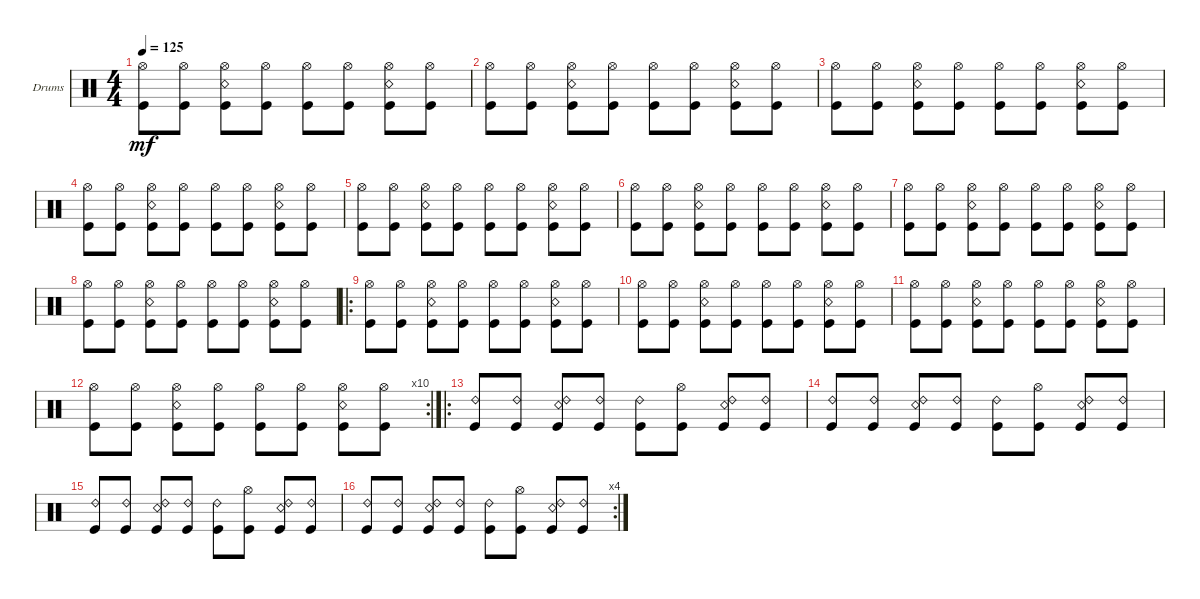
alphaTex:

\bracketExtendMode groupsimilarinstruments
\firstSystemTrackNameOrientation horizontal
\otherSystemsTrackNameOrientation horizontal
\track ("Drums" "Drums") {instrument percussion}
\staff {score}
\articulation defaults
\ts (4 4)
\tempo 125
\clef neutral
\ks c
("Kick (hit)" "Hi-Hat (open)").8{dy mf} ("Kick (hit)" "Hi-Hat (open)").8 ("Kick (hit)" "Hi-Hat (open)" "Snare (rim shot)").8 ("Kick (hit)" "Hi-Hat (open)").8 ("Kick (hit)" "Hi-Hat (open)").8 ("Kick (hit)" "Hi-Hat (open)").8 ("Kick (hit)" "Hi-Hat (open)" "Snare (rim shot)").8 ("Kick (hit)" "Hi-Hat (open)").8 |
("Kick (hit)" "Hi-Hat (open)").8 ("Kick (hit)" "Hi-Hat (open)").8 ("Kick (hit)" "Hi-Hat (open)" "Snare (rim shot)").8 ("Kick (hit)" "Hi-Hat (open)").8 ("Kick (hit)" "Hi-Hat (open)").8 ("Kick (hit)" "Hi-Hat (open)").8 ("Kick (hit)" "Hi-Hat (open)" "Snare (rim shot)").8 ("Kick (hit)" "Hi-Hat (open)").8 |
("Kick (hit)" "Hi-Hat (open)").8 ("Kick (hit)" "Hi-Hat (open)").8 ("Kick (hit)" "Hi-Hat (open)" "Snare (rim shot)").8 ("Kick (hit)" "Hi-Hat (open)").8 ("Kick (hit)" "Hi-Hat (open)").8 ("Kick (hit)" "Hi-Hat (open)").8 ("Kick (hit)" "Hi-Hat (open)" "Snare (rim shot)").8 ("Kick (hit)" "Hi-Hat (open)").8 |
("Kick (hit)" "Hi-Hat (open)").8 ("Kick (hit)" "Hi-Hat (open)").8 ("Kick (hit)" "Hi-Hat (open)" "Snare (rim shot)").8 ("Kick (hit)" "Hi-Hat (open)").8 ("Kick (hit)" "Hi-Hat (open)").8 ("Kick (hit)" "Hi-Hat (open)").8 ("Kick (hit)" "Hi-Hat (open)" "Snare (rim shot)").8 ("Kick (hit)" "Hi-Hat (open)").8 |
("Kick (hit)" "Hi-Hat (open)").8 ("Kick (hit)" "Hi-Hat (open)").8 ("Kick (hit)" "Hi-Hat (open)" "Snare (rim shot)").8 ("Kick (hit)" "Hi-Hat (open)").8 ("Kick (hit)" "Hi-Hat (open)").8 ("Kick (hit)" "Hi-Hat (open)").8 ("Kick (hit)" "Hi-Hat (open)" "Snare (rim shot)").8 ("Kick (hit)" "Hi-Hat (open)").8 |
("Kick (hit)" "Hi-Hat (open)").8 ("Kick (hit)" "Hi-Hat (open)").8 ("Kick (hit)" "Hi-Hat (open)" "Snare (rim shot)").8 ("Kick (hit)" "Hi-Hat (open)").8 ("Kick (hit)" "Hi-Hat (open)").8 ("Kick (hit)" "Hi-Hat (open)").8 ("Kick (hit)" "Hi-Hat (open)" "Snare (rim shot)").8 ("Kick (hit)" "Hi-Hat (open)").8 |
("Kick (hit)" "Hi-Hat (open)").8 ("Kick (hit)" "Hi-Hat (open)").8 ("Kick (hit)" "Hi-Hat (open)" "Snare (rim shot)").8 ("Kick (hit)" "Hi-Hat (open)").8 ("Kick (hit)" "Hi-Hat (open)").8 ("Kick (hit)" "Hi-Hat (open)").8 ("Kick (hit)" "Hi-Hat (open)" "Snare (rim shot)").8 ("Kick (hit)" "Hi-Hat (open)").8 |
("Kick (hit)" "Hi-Hat (open)").8 ("Kick (hit)" "Hi-Hat (open)").8 ("Kick (hit)" "Hi-Hat (open)" "Snare (rim shot)").8 ("Kick (hit)" "Hi-Hat (open)").8 ("Kick (hit)" "Hi-Hat (open)").8 ("Kick (hit)" "Hi-Hat (open)").8 ("Kick (hit)" "Hi-Hat (open)" "Snare (rim shot)").8 ("Kick (hit)" "Hi-Hat (open)").8 |
\ro
("Kick (hit)" "Hi-Hat (open)").8 ("Kick (hit)" "Hi-Hat (open)").8 ("Kick (hit)" "Hi-Hat (open)" "Snare (rim shot)").8 ("Kick (hit)" "Hi-Hat (open)").8 ("Kick (hit)" "Hi-Hat (open)").8 ("Kick (hit)" "Hi-Hat (open)").8 ("Kick (hit)" "Hi-Hat (open)" "Snare (rim shot)").8 ("Kick (hit)" "Hi-Hat (open)").8 |
("Kick (hit)" "Hi-Hat (open)").8 ("Kick (hit)" "Hi-Hat (open)").8 ("Kick (hit)" "Hi-Hat (open)" "Snare (rim shot)").8 ("Kick (hit)" "Hi-Hat (open)").8 ("Kick (hit)" "Hi-Hat (open)").8 ("Kick (hit)" "Hi-Hat (open)").8 ("Kick (hit)" "Hi-Hat (open)" "Snare (rim shot)").8 ("Kick (hit)" "Hi-Hat (open)").8 |
("Kick (hit)" "Hi-Hat (open)").8 ("Kick (hit)" "Hi-Hat (open)").8 ("Kick (hit)" "Hi-Hat (open)" "Snare (rim shot)").8 ("Kick (hit)" "Hi-Hat (open)").8 ("Kick (hit)" "Hi-Hat (open)").8 ("Kick (hit)" "Hi-Hat (open)").8 ("Kick (hit)" "Hi-Hat (open)" "Snare (rim shot)").8 ("Kick (hit)" "Hi-Hat (open)").8 |
\rc 10
("Kick (hit)" "Hi-Hat (open)").8 ("Kick (hit)" "Hi-Hat (open)").8 ("Kick (hit)" "Hi-Hat (open)" "Snare (rim shot)").8 ("Kick (hit)" "Hi-Hat (open)").8 ("Kick (hit)" "Hi-Hat (open)").8 ("Kick (hit)" "Hi-Hat (open)").8 ("Kick (hit)" "Hi-Hat (open)" "Snare (rim shot)").8 ("Kick (hit)" "Hi-Hat (open)").8 |
\ro
("Kick (hit)" "Ride (bell) 2").8 ("Kick (hit)" "Ride (bell) 2").8 ("Kick (hit)" "Snare (rim shot)" "Ride (bell) 2").8 ("Kick (hit)" "Ride (bell) 2").8 ("Kick (hit)" "Ride (bell) 2").8 ("Kick (hit)" "Hi-Hat (open)").8 ("Kick (hit)" "Snare (rim shot)" "Ride (bell) 2").8 ("Kick (hit)" "Ride (bell) 2").8 |
("Kick (hit)" "Ride (bell) 2").8 ("Kick (hit)" "Ride (bell) 2").8 ("Kick (hit)" "Snare (rim shot)" "Ride (bell) 2").8 ("Kick (hit)" "Ride (bell) 2").8 ("Kick (hit)" "Ride (bell) 2").8 ("Kick (hit)" "Hi-Hat (open)").8 ("Kick (hit)" "Snare (rim shot)" "Ride (bell) 2").8 ("Kick (hit)" "Ride (bell) 2").8 |
("Kick (hit)" "Ride (bell) 2").8 ("Kick (hit)" "Ride (bell) 2").8 ("Kick (hit)" "Snare (rim shot)" "Ride (bell) 2").8 ("Kick (hit)" "Ride (bell) 2").8 ("Kick (hit)" "Ride (bell) 2").8 ("Kick (hit)" "Hi-Hat (open)").8 ("Kick (hit)" "Snare (rim shot)" "Ride (bell) 2").8 ("Kick (hit)" "Ride (bell) 2").8 |
\rc 4
("Kick (hit)" "Ride (bell) 2").8 ("Kick (hit)" "Ride (bell) 2").8 ("Kick (hit)" "Snare (rim shot)" "Ride (bell) 2").8 ("Kick (hit)" "Ride (bell) 2").8 ("Kick (hit)" "Ride (bell) 2").8 ("Kick (hit)" "Hi-Hat (open)").8 ("Kick (hit)" "Snare (rim shot)" "Ride (bell) 2").8 ("Kick (hit)" "Ride (bell) 2").8
